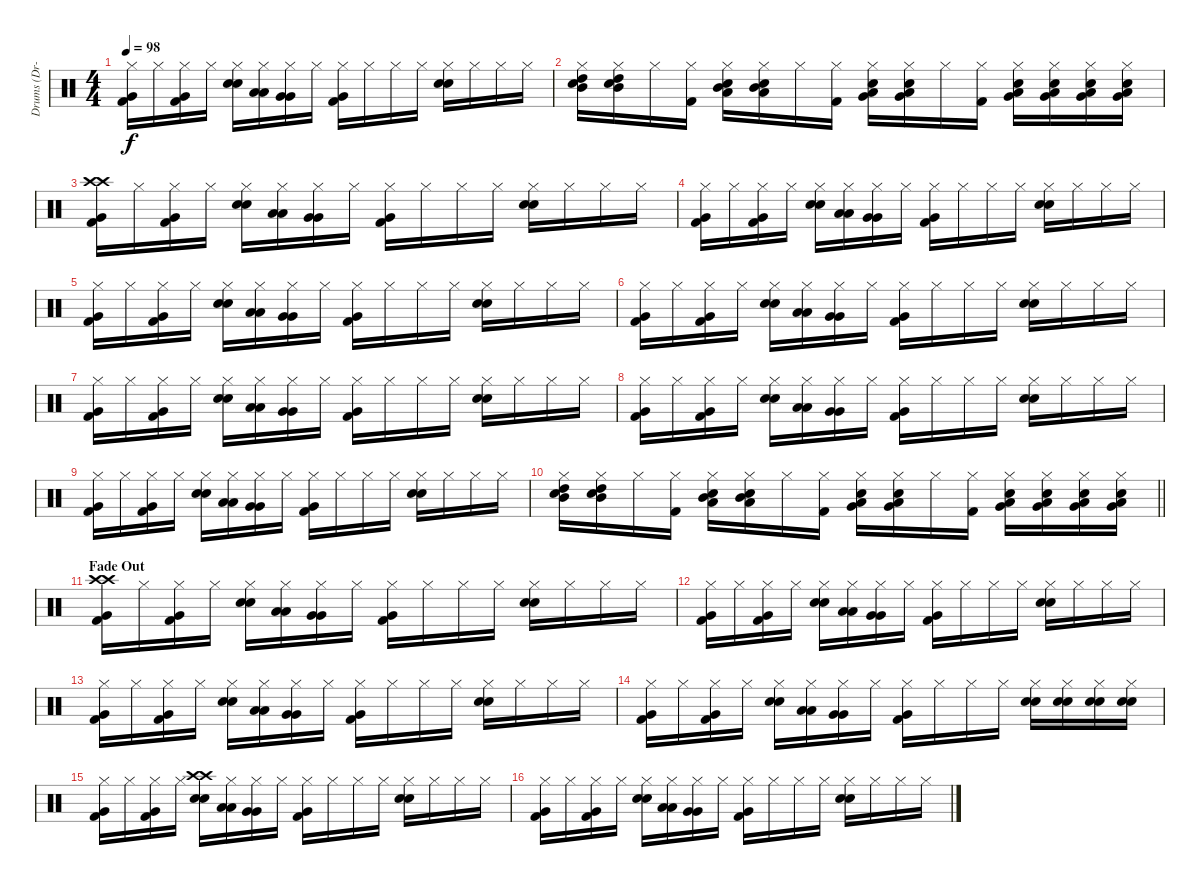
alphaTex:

\track ("Drums (Dr-0)" "Drums (Dr-") {instrument percussion}
\staff {score}
\articulation defaults
\ts (4 4)
\tempo 98
\clef neutral
\ks c
("Hi-Hat (closed)" "Very Low Tom (hit)" "Kick (hit) 2").16{dy f} "Hi-Hat (closed)".16 ("Hi-Hat (closed)" "Very Low Tom (hit)" "Kick (hit) 2").16 "Hi-Hat (closed)".16 ("Hi-Hat (closed)" "Electric Snare (hit)" "Snare (hit) 2").16 ("Hi-Hat (closed)" "Low Tom (hit)" "Low Tom (hit)").16 ("Hi-Hat (closed)" "Very Low Tom (hit)" "Very Low Tom (hit)").16 "Hi-Hat (closed)".16 ("Hi-Hat (closed)" "Very Low Tom (hit)" "Kick (hit) 2").16 "Hi-Hat (closed)".16 "Hi-Hat (closed)".16 "Hi-Hat (closed)".16 ("Hi-Hat (closed)" "Electric Snare (hit)" "Snare (hit) 2").16 "Hi-Hat (closed)".16 "Hi-Hat (closed)".16 "Hi-Hat (closed)".16 |
("Hi-Hat (closed)" "High Tom (hit)" "Mid Tom (hit)" "Electric Snare (hit)").16 ("Hi-Hat (closed)" "High Tom (hit)" "Mid Tom (hit)" "Electric Snare (hit)").16 "Hi-Hat (closed)".16 ("Hi-Hat (closed)" "Kick (hit) 2").16 ("Hi-Hat (closed)" "Mid Tom (hit)" "Low Tom (hit)" "Electric Snare (hit)").16 ("Hi-Hat (closed)" "Mid Tom (hit)" "Low Tom (hit)" "Electric Snare (hit)").16 "Hi-Hat (closed)".16 ("Hi-Hat (closed)" "Kick (hit) 2").16 ("Hi-Hat (closed)" "Low Tom (hit)" "Very Low Tom (hit)" "Electric Snare (hit)").16 ("Hi-Hat (closed)" "Low Tom (hit)" "Very Low Tom (hit)" "Electric Snare (hit)").16 "Hi-Hat (closed)".16 ("Hi-Hat (closed)" "Kick (hit) 2").16 ("Hi-Hat (closed)" "Very Low Tom (hit)" "Low Floor Tom (hit)" "Electric Snare (hit)").16 ("Hi-Hat (closed)" "Very Low Tom (hit)" "Low Floor Tom (hit)" "Electric Snare (hit)").16 ("Hi-Hat (closed)" "Very Low Tom (hit)" "Low Floor Tom (hit)" "Electric Snare (hit)").16 ("Hi-Hat (closed)" "Very Low Tom (hit)" "Low Floor Tom (hit)" "Electric Snare (hit)").16 |
("Crash high (hit)" "Crash high (hit)" "Very Low Tom (hit)" "Kick (hit) 2").16 "Hi-Hat (closed)".16 ("Hi-Hat (closed)" "Very Low Tom (hit)" "Kick (hit) 2").16 "Hi-Hat (closed)".16 ("Hi-Hat (closed)" "Electric Snare (hit)" "Snare (hit) 2").16 ("Hi-Hat (closed)" "Low Tom (hit)" "Low Tom (hit)").16 ("Hi-Hat (closed)" "Very Low Tom (hit)" "Very Low Tom (hit)").16 "Hi-Hat (closed)".16 ("Hi-Hat (closed)" "Very Low Tom (hit)" "Kick (hit) 2").16 "Hi-Hat (closed)".16 "Hi-Hat (closed)".16 "Hi-Hat (closed)".16 ("Hi-Hat (closed)" "Electric Snare (hit)" "Snare (hit) 2").16 "Hi-Hat (closed)".16 "Hi-Hat (closed)".16 "Hi-Hat (closed)".16 |
("Hi-Hat (closed)" "Very Low Tom (hit)" "Kick (hit) 2").16 "Hi-Hat (closed)".16 ("Hi-Hat (closed)" "Very Low Tom (hit)" "Kick (hit) 2").16 "Hi-Hat (closed)".16 ("Hi-Hat (closed)" "Electric Snare (hit)" "Snare (hit) 2").16 ("Hi-Hat (closed)" "Low Tom (hit)" "Low Tom (hit)").16 ("Hi-Hat (closed)" "Very Low Tom (hit)" "Very Low Tom (hit)").16 "Hi-Hat (closed)".16 ("Hi-Hat (closed)" "Very Low Tom (hit)" "Kick (hit) 2").16 "Hi-Hat (closed)".16 "Hi-Hat (closed)".16 "Hi-Hat (closed)".16 ("Hi-Hat (closed)" "Electric Snare (hit)" "Snare (hit) 2").16 "Hi-Hat (closed)".16 "Hi-Hat (closed)".16 "Hi-Hat (closed)".16 |
("Hi-Hat (closed)" "Very Low Tom (hit)" "Kick (hit) 2").16 "Hi-Hat (closed)".16 ("Hi-Hat (closed)" "Very Low Tom (hit)" "Kick (hit) 2").16 "Hi-Hat (closed)".16 ("Hi-Hat (closed)" "Electric Snare (hit)" "Snare (hit) 2").16 ("Hi-Hat (closed)" "Low Tom (hit)" "Low Tom (hit)").16 ("Hi-Hat (closed)" "Very Low Tom (hit)" "Very Low Tom (hit)").16 "Hi-Hat (closed)".16 ("Hi-Hat (closed)" "Very Low Tom (hit)" "Kick (hit) 2").16 "Hi-Hat (closed)".16 "Hi-Hat (closed)".16 "Hi-Hat (closed)".16 ("Hi-Hat (closed)" "Electric Snare (hit)" "Snare (hit) 2").16 "Hi-Hat (closed)".16 "Hi-Hat (closed)".16 "Hi-Hat (closed)".16 |
("Hi-Hat (closed)" "Very Low Tom (hit)" "Kick (hit) 2").16 "Hi-Hat (closed)".16 ("Hi-Hat (closed)" "Very Low Tom (hit)" "Kick (hit) 2").16 "Hi-Hat (closed)".16 ("Hi-Hat (closed)" "Electric Snare (hit)" "Snare (hit) 2").16 ("Hi-Hat (closed)" "Low Tom (hit)" "Low Tom (hit)").16 ("Hi-Hat (closed)" "Very Low Tom (hit)" "Very Low Tom (hit)").16 "Hi-Hat (closed)".16 ("Hi-Hat (closed)" "Very Low Tom (hit)" "Kick (hit) 2").16 "Hi-Hat (closed)".16 "Hi-Hat (closed)".16 "Hi-Hat (closed)".16 ("Hi-Hat (closed)" "Electric Snare (hit)" "Snare (hit) 2").16 "Hi-Hat (closed)".16 "Hi-Hat (closed)".16 "Hi-Hat (closed)".16 |
("Hi-Hat (closed)" "Very Low Tom (hit)" "Kick (hit) 2").16 "Hi-Hat (closed)".16 ("Hi-Hat (closed)" "Very Low Tom (hit)" "Kick (hit) 2").16 "Hi-Hat (closed)".16 ("Hi-Hat (closed)" "Electric Snare (hit)" "Snare (hit) 2").16 ("Hi-Hat (closed)" "Low Tom (hit)" "Low Tom (hit)").16 ("Hi-Hat (closed)" "Very Low Tom (hit)" "Very Low Tom (hit)").16 "Hi-Hat (closed)".16 ("Hi-Hat (closed)" "Very Low Tom (hit)" "Kick (hit) 2").16 "Hi-Hat (closed)".16 "Hi-Hat (closed)".16 "Hi-Hat (closed)".16 ("Hi-Hat (closed)" "Electric Snare (hit)" "Snare (hit) 2").16 "Hi-Hat (closed)".16 "Hi-Hat (closed)".16 "Hi-Hat (closed)".16 |
("Hi-Hat (closed)" "Very Low Tom (hit)" "Kick (hit) 2").16 "Hi-Hat (closed)".16 ("Hi-Hat (closed)" "Very Low Tom (hit)" "Kick (hit) 2").16 "Hi-Hat (closed)".16 ("Hi-Hat (closed)" "Electric Snare (hit)" "Snare (hit) 2").16 ("Hi-Hat (closed)" "Low Tom (hit)" "Low Tom (hit)").16 ("Hi-Hat (closed)" "Very Low Tom (hit)" "Very Low Tom (hit)").16 "Hi-Hat (closed)".16 ("Hi-Hat (closed)" "Very Low Tom (hit)" "Kick (hit) 2").16 "Hi-Hat (closed)".16 "Hi-Hat (closed)".16 "Hi-Hat (closed)".16 ("Hi-Hat (closed)" "Electric Snare (hit)" "Snare (hit) 2").16 "Hi-Hat (closed)".16 "Hi-Hat (closed)".16 "Hi-Hat (closed)".16 |
("Hi-Hat (closed)" "Very Low Tom (hit)" "Kick (hit) 2").16 "Hi-Hat (closed)".16 ("Hi-Hat (closed)" "Very Low Tom (hit)" "Kick (hit) 2").16 "Hi-Hat (closed)".16 ("Hi-Hat (closed)" "Electric Snare (hit)" "Snare (hit) 2").16 ("Hi-Hat (closed)" "Low Tom (hit)" "Low Tom (hit)").16 ("Hi-Hat (closed)" "Very Low Tom (hit)" "Very Low Tom (hit)").16 "Hi-Hat (closed)".16 ("Hi-Hat (closed)" "Very Low Tom (hit)" "Kick (hit) 2").16 "Hi-Hat (closed)".16 "Hi-Hat (closed)".16 "Hi-Hat (closed)".16 ("Hi-Hat (closed)" "Electric Snare (hit)" "Snare (hit) 2").16 "Hi-Hat (closed)".16 "Hi-Hat (closed)".16 "Hi-Hat (closed)".16 |
\barLineRight lightlight
("Hi-Hat (closed)" "High Tom (hit)" "Mid Tom (hit)" "Electric Snare (hit)").16 ("Hi-Hat (closed)" "High Tom (hit)" "Mid Tom (hit)" "Electric Snare (hit)").16 "Hi-Hat (closed)".16 ("Hi-Hat (closed)" "Kick (hit) 2").16 ("Hi-Hat (closed)" "Mid Tom (hit)" "Low Tom (hit)" "Electric Snare (hit)").16 ("Hi-Hat (closed)" "Mid Tom (hit)" "Low Tom (hit)" "Electric Snare (hit)").16 "Hi-Hat (closed)".16 ("Hi-Hat (closed)" "Kick (hit) 2").16 ("Hi-Hat (closed)" "Low Tom (hit)" "Very Low Tom (hit)" "Electric Snare (hit)").16 ("Hi-Hat (closed)" "Low Tom (hit)" "Very Low Tom (hit)" "Electric Snare (hit)").16 "Hi-Hat (closed)".16 ("Hi-Hat (closed)" "Kick (hit) 2").16 ("Hi-Hat (closed)" "Very Low Tom (hit)" "Low Floor Tom (hit)" "Electric Snare (hit)").16 ("Hi-Hat (closed)" "Very Low Tom (hit)" "Low Floor Tom (hit)" "Electric Snare (hit)").16 ("Hi-Hat (closed)" "Very Low Tom (hit)" "Low Floor Tom (hit)" "Electric Snare (hit)").16 ("Hi-Hat (closed)" "Very Low Tom (hit)" "Low Floor Tom (hit)" "Electric Snare (hit)").16 |
\section ("" "Fade Out")
("Crash high (hit)" "Crash high (hit)" "Very Low Tom (hit)" "Kick (hit) 2").16 "Hi-Hat (closed)".16 ("Hi-Hat (closed)" "Very Low Tom (hit)" "Kick (hit) 2").16 "Hi-Hat (closed)".16 ("Hi-Hat (closed)" "Electric Snare (hit)" "Snare (hit) 2").16 ("Hi-Hat (closed)" "Low Tom (hit)" "Low Tom (hit)").16 ("Hi-Hat (closed)" "Very Low Tom (hit)" "Very Low Tom (hit)").16 "Hi-Hat (closed)".16 ("Hi-Hat (closed)" "Very Low Tom (hit)" "Kick (hit) 2").16 "Hi-Hat (closed)".16 "Hi-Hat (closed)".16 "Hi-Hat (closed)".16 ("Hi-Hat (closed)" "Electric Snare (hit)" "Snare (hit) 2").16 "Hi-Hat (closed)".16 "Hi-Hat (closed)".16 "Hi-Hat (closed)".16 |
("Hi-Hat (closed)" "Very Low Tom (hit)" "Kick (hit) 2").16 "Hi-Hat (closed)".16 ("Hi-Hat (closed)" "Very Low Tom (hit)" "Kick (hit) 2").16 "Hi-Hat (closed)".16 ("Hi-Hat (closed)" "Electric Snare (hit)" "Snare (hit) 2").16 ("Hi-Hat (closed)" "Low Tom (hit)" "Low Tom (hit)").16 ("Hi-Hat (closed)" "Very Low Tom (hit)" "Very Low Tom (hit)").16 "Hi-Hat (closed)".16 ("Hi-Hat (closed)" "Very Low Tom (hit)" "Kick (hit) 2").16 "Hi-Hat (closed)".16 "Hi-Hat (closed)".16 "Hi-Hat (closed)".16 ("Hi-Hat (closed)" "Electric Snare (hit)" "Snare (hit) 2").16 "Hi-Hat (closed)".16 "Hi-Hat (closed)".16 "Hi-Hat (closed)".16 |
("Hi-Hat (closed)" "Very Low Tom (hit)" "Kick (hit) 2").16 "Hi-Hat (closed)".16 ("Hi-Hat (closed)" "Very Low Tom (hit)" "Kick (hit) 2").16 "Hi-Hat (closed)".16 ("Hi-Hat (closed)" "Electric Snare (hit)" "Snare (hit) 2").16 ("Hi-Hat (closed)" "Low Tom (hit)" "Low Tom (hit)").16 ("Hi-Hat (closed)" "Very Low Tom (hit)" "Very Low Tom (hit)").16 "Hi-Hat (closed)".16 ("Hi-Hat (closed)" "Very Low Tom (hit)" "Kick (hit) 2").16 "Hi-Hat (closed)".16 "Hi-Hat (closed)".16 "Hi-Hat (closed)".16 ("Hi-Hat (closed)" "Electric Snare (hit)" "Snare (hit) 2").16 "Hi-Hat (closed)".16 "Hi-Hat (closed)".16 "Hi-Hat (closed)".16 |
("Hi-Hat (closed)" "Very Low Tom (hit)" "Kick (hit) 2").16 "Hi-Hat (closed)".16 ("Hi-Hat (closed)" "Very Low Tom (hit)" "Kick (hit) 2").16 "Hi-Hat (closed)".16 ("Hi-Hat (closed)" "Electric Snare (hit)" "Snare (hit) 2").16 ("Hi-Hat (closed)" "Low Tom (hit)" "Low Tom (hit)").16 ("Hi-Hat (closed)" "Very Low Tom (hit)" "Very Low Tom (hit)").16 "Hi-Hat (closed)".16 ("Hi-Hat (closed)" "Very Low Tom (hit)" "Kick (hit) 2").16 "Hi-Hat (closed)".16 "Hi-Hat (closed)".16 "Hi-Hat (closed)".16 ("Hi-Hat (closed)" "Electric Snare (hit)" "Snare (hit) 2").16 ("Hi-Hat (closed)" "Electric Snare (hit)" "Snare (hit) 2").16 ("Hi-Hat (closed)" "Electric Snare (hit)" "Snare (hit) 2").16 ("Hi-Hat (closed)" "Electric Snare (hit)" "Snare (hit) 2").16 |
("Hi-Hat (closed)" "Very Low Tom (hit)" "Kick (hit) 2").16 "Hi-Hat (closed)".16 ("Hi-Hat (closed)" "Very Low Tom (hit)" "Kick (hit) 2").16 "Hi-Hat (closed)".16 ("Crash high (hit)" "Crash high (hit)" "Electric Snare (hit)" "Snare (hit) 2").16 ("Hi-Hat (closed)" "Low Tom (hit)" "Low Tom (hit)").16 ("Hi-Hat (closed)" "Very Low Tom (hit)" "Very Low Tom (hit)").16 "Hi-Hat (closed)".16 ("Hi-Hat (closed)" "Very Low Tom (hit)" "Kick (hit) 2").16 "Hi-Hat (closed)".16 "Hi-Hat (closed)".16 "Hi-Hat (closed)".16 ("Hi-Hat (closed)" "Electric Snare (hit)" "Snare (hit) 2").16 "Hi-Hat (closed)".16 "Hi-Hat (closed)".16 "Hi-Hat (closed)".16 |
("Hi-Hat (closed)" "Very Low Tom (hit)" "Kick (hit) 2").16 "Hi-Hat (closed)".16 ("Hi-Hat (closed)" "Very Low Tom (hit)" "Kick (hit) 2").16 "Hi-Hat (closed)".16 ("Hi-Hat (closed)" "Electric Snare (hit)" "Snare (hit) 2").16 ("Hi-Hat (closed)" "Low Tom (hit)" "Low Tom (hit)").16 ("Hi-Hat (closed)" "Very Low Tom (hit)" "Very Low Tom (hit)").16 "Hi-Hat (closed)".16 ("Hi-Hat (closed)" "Very Low Tom (hit)" "Kick (hit) 2").16 "Hi-Hat (closed)".16 "Hi-Hat (closed)".16 "Hi-Hat (closed)".16 ("Hi-Hat (closed)" "Electric Snare (hit)" "Snare (hit) 2").16 "Hi-Hat (closed)".16 "Hi-Hat (closed)".16 "Hi-Hat (closed)".16
